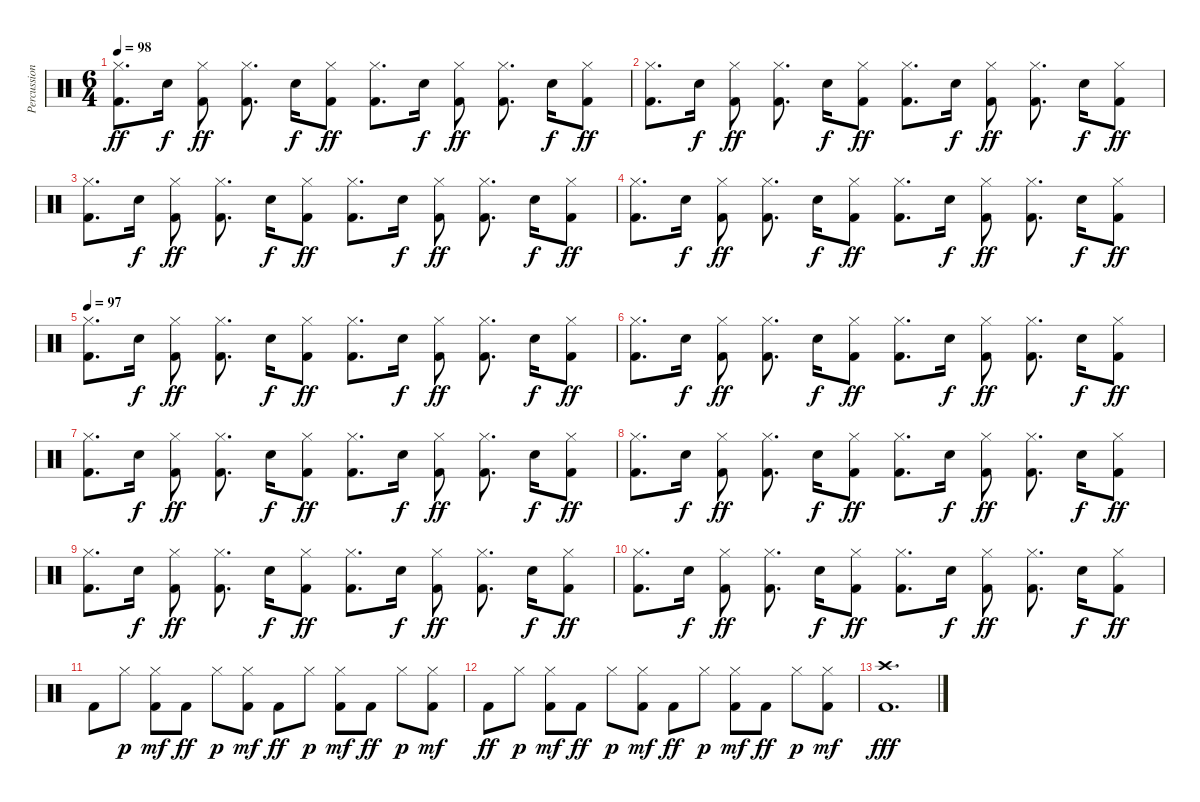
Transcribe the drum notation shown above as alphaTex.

\track ("Percussion" "Percussion") {instrument percussion}
\staff {score}
\articulation defaults
\ts (6 4)
\tempo 98
\clef neutral
\ks c
("Hi-Hat (closed)" "Kick (hit) 2").8{d dy ff} "Electric Snare (hit)".16{dy f} ("Hi-Hat (closed)" "Kick (hit) 2").8{dy ff beam split} ("Hi-Hat (closed)" "Kick (hit) 2").8{d} "Electric Snare (hit)".16{dy f} ("Hi-Hat (closed)" "Kick (hit) 2").8{dy ff} ("Hi-Hat (closed)" "Kick (hit) 2").8{d} "Electric Snare (hit)".16{dy f} ("Hi-Hat (closed)" "Kick (hit) 2").8{dy ff beam split} ("Hi-Hat (closed)" "Kick (hit) 2").8{d} "Electric Snare (hit)".16{dy f} ("Hi-Hat (closed)" "Kick (hit) 2").8{dy ff} |
("Hi-Hat (closed)" "Kick (hit) 2").8{d} "Electric Snare (hit)".16{dy f} ("Hi-Hat (closed)" "Kick (hit) 2").8{dy ff beam split} ("Hi-Hat (closed)" "Kick (hit) 2").8{d} "Electric Snare (hit)".16{dy f} ("Hi-Hat (closed)" "Kick (hit) 2").8{dy ff} ("Hi-Hat (closed)" "Kick (hit) 2").8{d} "Electric Snare (hit)".16{dy f} ("Hi-Hat (closed)" "Kick (hit) 2").8{dy ff beam split} ("Hi-Hat (closed)" "Kick (hit) 2").8{d} "Electric Snare (hit)".16{dy f} ("Hi-Hat (closed)" "Kick (hit) 2").8{dy ff} |
("Hi-Hat (closed)" "Kick (hit) 2").8{d} "Electric Snare (hit)".16{dy f} ("Hi-Hat (closed)" "Kick (hit) 2").8{dy ff beam split} ("Hi-Hat (closed)" "Kick (hit) 2").8{d} "Electric Snare (hit)".16{dy f} ("Hi-Hat (closed)" "Kick (hit) 2").8{dy ff} ("Hi-Hat (closed)" "Kick (hit) 2").8{d} "Electric Snare (hit)".16{dy f} ("Hi-Hat (closed)" "Kick (hit) 2").8{dy ff beam split} ("Hi-Hat (closed)" "Kick (hit) 2").8{d} "Electric Snare (hit)".16{dy f} ("Hi-Hat (closed)" "Kick (hit) 2").8{dy ff} |
("Hi-Hat (closed)" "Kick (hit) 2").8{d} "Electric Snare (hit)".16{dy f} ("Hi-Hat (closed)" "Kick (hit) 2").8{dy ff beam split} ("Hi-Hat (closed)" "Kick (hit) 2").8{d} "Electric Snare (hit)".16{dy f} ("Hi-Hat (closed)" "Kick (hit) 2").8{dy ff} ("Hi-Hat (closed)" "Kick (hit) 2").8{d} "Electric Snare (hit)".16{dy f} ("Hi-Hat (closed)" "Kick (hit) 2").8{dy ff beam split} ("Hi-Hat (closed)" "Kick (hit) 2").8{d} "Electric Snare (hit)".16{dy f} ("Hi-Hat (closed)" "Kick (hit) 2").8{dy ff} |
\tempo 97
("Hi-Hat (closed)" "Kick (hit) 2").8{d} "Electric Snare (hit)".16{dy f} ("Hi-Hat (closed)" "Kick (hit) 2").8{dy ff beam split} ("Hi-Hat (closed)" "Kick (hit) 2").8{d} "Electric Snare (hit)".16{dy f} ("Hi-Hat (closed)" "Kick (hit) 2").8{dy ff} ("Hi-Hat (closed)" "Kick (hit) 2").8{d} "Electric Snare (hit)".16{dy f} ("Hi-Hat (closed)" "Kick (hit) 2").8{dy ff beam split} ("Hi-Hat (closed)" "Kick (hit) 2").8{d} "Electric Snare (hit)".16{dy f} ("Hi-Hat (closed)" "Kick (hit) 2").8{dy ff} |
("Hi-Hat (closed)" "Kick (hit) 2").8{d} "Electric Snare (hit)".16{dy f} ("Hi-Hat (closed)" "Kick (hit) 2").8{dy ff beam split} ("Hi-Hat (closed)" "Kick (hit) 2").8{d} "Electric Snare (hit)".16{dy f} ("Hi-Hat (closed)" "Kick (hit) 2").8{dy ff} ("Hi-Hat (closed)" "Kick (hit) 2").8{d} "Electric Snare (hit)".16{dy f} ("Hi-Hat (closed)" "Kick (hit) 2").8{dy ff beam split} ("Hi-Hat (closed)" "Kick (hit) 2").8{d} "Electric Snare (hit)".16{dy f} ("Hi-Hat (closed)" "Kick (hit) 2").8{dy ff} |
("Hi-Hat (closed)" "Kick (hit) 2").8{d} "Electric Snare (hit)".16{dy f} ("Hi-Hat (closed)" "Kick (hit) 2").8{dy ff beam split} ("Hi-Hat (closed)" "Kick (hit) 2").8{d} "Electric Snare (hit)".16{dy f} ("Hi-Hat (closed)" "Kick (hit) 2").8{dy ff} ("Hi-Hat (closed)" "Kick (hit) 2").8{d} "Electric Snare (hit)".16{dy f} ("Hi-Hat (closed)" "Kick (hit) 2").8{dy ff beam split} ("Hi-Hat (closed)" "Kick (hit) 2").8{d} "Electric Snare (hit)".16{dy f} ("Hi-Hat (closed)" "Kick (hit) 2").8{dy ff} |
("Hi-Hat (closed)" "Kick (hit) 2").8{d} "Electric Snare (hit)".16{dy f} ("Hi-Hat (closed)" "Kick (hit) 2").8{dy ff beam split} ("Hi-Hat (closed)" "Kick (hit) 2").8{d} "Electric Snare (hit)".16{dy f} ("Hi-Hat (closed)" "Kick (hit) 2").8{dy ff} ("Hi-Hat (closed)" "Kick (hit) 2").8{d} "Electric Snare (hit)".16{dy f} ("Hi-Hat (closed)" "Kick (hit) 2").8{dy ff beam split} ("Hi-Hat (closed)" "Kick (hit) 2").8{d} "Electric Snare (hit)".16{dy f} ("Hi-Hat (closed)" "Kick (hit) 2").8{dy ff} |
("Hi-Hat (closed)" "Kick (hit) 2").8{d} "Electric Snare (hit)".16{dy f} ("Hi-Hat (closed)" "Kick (hit) 2").8{dy ff beam split} ("Hi-Hat (closed)" "Kick (hit) 2").8{d} "Electric Snare (hit)".16{dy f} ("Hi-Hat (closed)" "Kick (hit) 2").8{dy ff} ("Hi-Hat (closed)" "Kick (hit) 2").8{d} "Electric Snare (hit)".16{dy f} ("Hi-Hat (closed)" "Kick (hit) 2").8{dy ff beam split} ("Hi-Hat (closed)" "Kick (hit) 2").8{d} "Electric Snare (hit)".16{dy f} ("Hi-Hat (closed)" "Kick (hit) 2").8{dy ff} |
("Hi-Hat (closed)" "Kick (hit) 2").8{d} "Electric Snare (hit)".16{dy f} ("Hi-Hat (closed)" "Kick (hit) 2").8{dy ff beam split} ("Hi-Hat (closed)" "Kick (hit) 2").8{d} "Electric Snare (hit)".16{dy f} ("Hi-Hat (closed)" "Kick (hit) 2").8{dy ff} ("Hi-Hat (closed)" "Kick (hit) 2").8{d} "Electric Snare (hit)".16{dy f} ("Hi-Hat (closed)" "Kick (hit) 2").8{dy ff beam split} ("Hi-Hat (closed)" "Kick (hit) 2").8{d} "Electric Snare (hit)".16{dy f} ("Hi-Hat (closed)" "Kick (hit) 2").8{dy ff} |
"Kick (hit) 2".8 "Hi-Hat (closed)".8{dy p} ("Hi-Hat (closed)" "Kick (hit) 2").8{dy mf} "Kick (hit) 2".8{dy ff} "Hi-Hat (closed)".8{dy p} ("Hi-Hat (closed)" "Kick (hit) 2").8{dy mf} "Kick (hit) 2".8{dy ff} "Hi-Hat (closed)".8{dy p} ("Hi-Hat (closed)" "Kick (hit) 2").8{dy mf} "Kick (hit) 2".8{dy ff} "Hi-Hat (closed)".8{dy p} ("Hi-Hat (closed)" "Kick (hit) 2").8{dy mf} |
"Kick (hit) 2".8{dy ff} "Hi-Hat (closed)".8{dy p} ("Hi-Hat (closed)" "Kick (hit) 2").8{dy mf} "Kick (hit) 2".8{dy ff} "Hi-Hat (closed)".8{dy p} ("Hi-Hat (closed)" "Kick (hit) 2").8{dy mf} "Kick (hit) 2".8{dy ff} "Hi-Hat (closed)".8{dy p} ("Hi-Hat (closed)" "Kick (hit) 2").8{dy mf} "Kick (hit) 2".8{dy ff} "Hi-Hat (closed)".8{dy p} ("Hi-Hat (closed)" "Kick (hit) 2").8{dy mf} |
("Crash high (hit)" "Kick (hit) 2").1{d dy fff}
